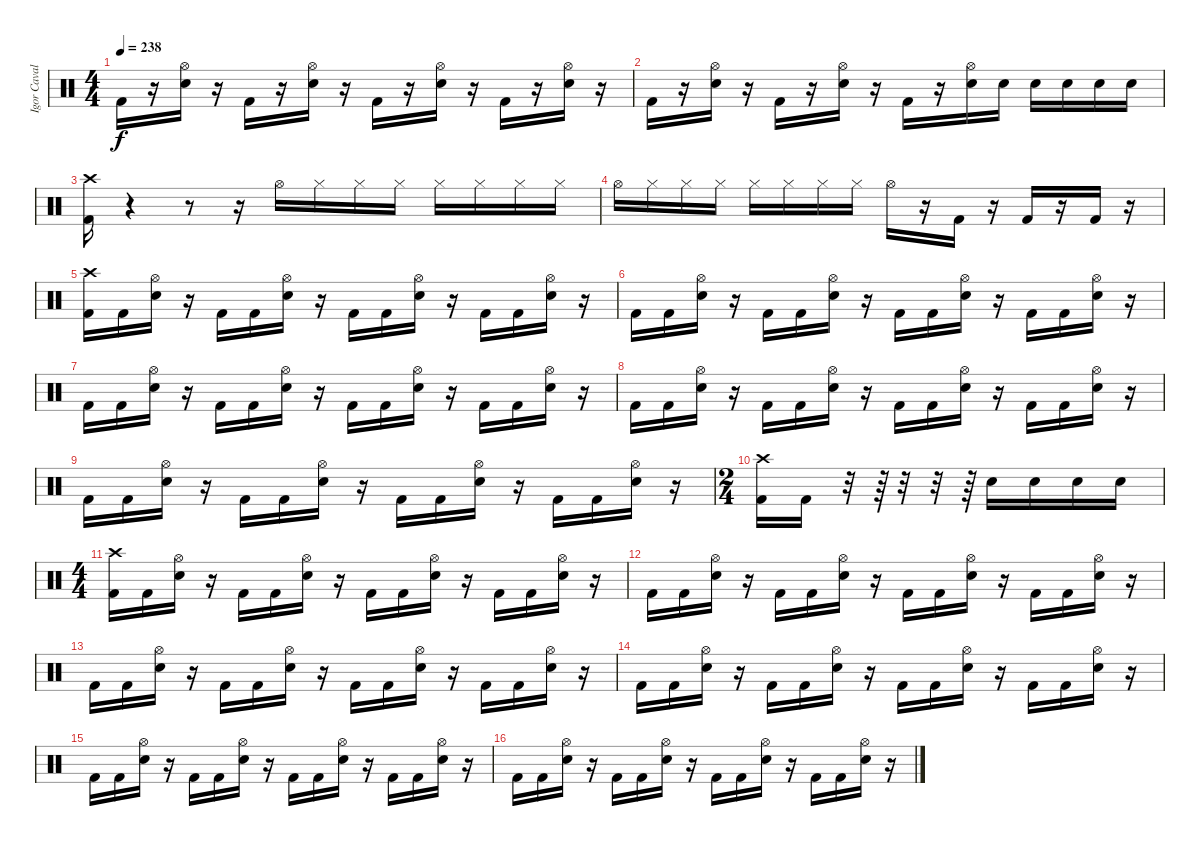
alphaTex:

\track ("Igor Cavalera" "Igor Caval") {instrument percussion}
\staff {score}
\articulation defaults
\ts (4 4)
\tempo 238
\clef neutral
\ks c "Kick (hit) 2".16{dy f}
r.16 ("Snare (hit) 2" "Hi-Hat (open)").16 r.16 "Kick (hit) 2".16 r.16 ("Snare (hit) 2" "Hi-Hat (open)").16 r.16 "Kick (hit) 2".16 r.16 ("Snare (hit) 2" "Hi-Hat (open)").16 r.16 "Kick (hit) 2".16 r.16 ("Snare (hit) 2" "Hi-Hat (open)").16 r.16 |
"Kick (hit) 2".16 r.16 ("Snare (hit) 2" "Hi-Hat (open)").16 r.16 "Kick (hit) 2".16 r.16 ("Snare (hit) 2" "Hi-Hat (open)").16 r.16 "Kick (hit) 2".16 r.16 ("Snare (hit) 2" "Hi-Hat (open)").16 "Snare (hit) 2".16 "Snare (hit) 2".16 "Snare (hit) 2".16 "Snare (hit) 2".16 "Snare (hit) 2".16 |
("Kick (hit) 2" "Crash high (hit)").16 r.4 r.8 r.16 "Hi-Hat (open)".16 "Hi-Hat (closed)".16 "Hi-Hat (closed)".16 "Hi-Hat (closed)".16 "Hi-Hat (closed)".16 "Hi-Hat (closed)".16 "Hi-Hat (closed)".16 "Hi-Hat (closed)".16 |
"Hi-Hat (open)".16 "Hi-Hat (closed)".16 "Hi-Hat (closed)".16 "Hi-Hat (closed)".16 "Hi-Hat (closed)".16 "Hi-Hat (closed)".16 "Hi-Hat (closed)".16 "Hi-Hat (closed)".16 "Hi-Hat (open)".16 r.16 "Kick (hit) 2".16 r.16 "Kick (hit) 2".16 r.16 "Kick (hit) 2".16 r.16 |
("Kick (hit) 2" "Crash high (hit)").16 "Kick (hit) 2".16 ("Snare (hit) 2" "Hi-Hat (open)").16 r.16 "Kick (hit) 2".16 "Kick (hit) 2".16 ("Snare (hit) 2" "Hi-Hat (open)").16 r.16 "Kick (hit) 2".16 "Kick (hit) 2".16 ("Snare (hit) 2" "Hi-Hat (open)").16 r.16 "Kick (hit) 2".16 "Kick (hit) 2".16 ("Snare (hit) 2" "Hi-Hat (open)").16 r.16 |
"Kick (hit) 2".16 "Kick (hit) 2".16 ("Snare (hit) 2" "Hi-Hat (open)").16 r.16 "Kick (hit) 2".16 "Kick (hit) 2".16 ("Snare (hit) 2" "Hi-Hat (open)").16 r.16 "Kick (hit) 2".16 "Kick (hit) 2".16 ("Snare (hit) 2" "Hi-Hat (open)").16 r.16 "Kick (hit) 2".16 "Kick (hit) 2".16 ("Snare (hit) 2" "Hi-Hat (open)").16 r.16 |
"Kick (hit) 2".16 "Kick (hit) 2".16 ("Snare (hit) 2" "Hi-Hat (open)").16 r.16 "Kick (hit) 2".16 "Kick (hit) 2".16 ("Snare (hit) 2" "Hi-Hat (open)").16 r.16 "Kick (hit) 2".16 "Kick (hit) 2".16 ("Snare (hit) 2" "Hi-Hat (open)").16 r.16 "Kick (hit) 2".16 "Kick (hit) 2".16 ("Snare (hit) 2" "Hi-Hat (open)").16 r.16 |
"Kick (hit) 2".16 "Kick (hit) 2".16 ("Snare (hit) 2" "Hi-Hat (open)").16 r.16 "Kick (hit) 2".16 "Kick (hit) 2".16 ("Snare (hit) 2" "Hi-Hat (open)").16 r.16 "Kick (hit) 2".16 "Kick (hit) 2".16 ("Snare (hit) 2" "Hi-Hat (open)").16 r.16 "Kick (hit) 2".16 "Kick (hit) 2".16 ("Snare (hit) 2" "Hi-Hat (open)").16 r.16 |
"Kick (hit) 2".16 "Kick (hit) 2".16 ("Snare (hit) 2" "Hi-Hat (open)").16 r.16 "Kick (hit) 2".16 "Kick (hit) 2".16 ("Snare (hit) 2" "Hi-Hat (open)").16 r.16 "Kick (hit) 2".16 "Kick (hit) 2".16 ("Snare (hit) 2" "Hi-Hat (open)").16 r.16 "Kick (hit) 2".16 "Kick (hit) 2".16 ("Snare (hit) 2" "Hi-Hat (open)").16 r.16 |
\ts (2 4)
("Crash high (hit)" "Kick (hit) 2").16 "Kick (hit) 2".16 r.32 r.64 r.32 r.32 r.64 "Snare (hit) 2".16 "Snare (hit) 2".16 "Snare (hit) 2".16 "Snare (hit) 2".16 |
\ts (4 4)
("Kick (hit) 2" "Crash high (hit)").16 "Kick (hit) 2".16 ("Snare (hit) 2" "Hi-Hat (open)").16 r.16 "Kick (hit) 2".16 "Kick (hit) 2".16 ("Snare (hit) 2" "Hi-Hat (open)").16 r.16 "Kick (hit) 2".16 "Kick (hit) 2".16 ("Snare (hit) 2" "Hi-Hat (open)").16 r.16 "Kick (hit) 2".16 "Kick (hit) 2".16 ("Snare (hit) 2" "Hi-Hat (open)").16 r.16 |
"Kick (hit) 2".16 "Kick (hit) 2".16 ("Snare (hit) 2" "Hi-Hat (open)").16 r.16 "Kick (hit) 2".16 "Kick (hit) 2".16 ("Snare (hit) 2" "Hi-Hat (open)").16 r.16 "Kick (hit) 2".16 "Kick (hit) 2".16 ("Snare (hit) 2" "Hi-Hat (open)").16 r.16 "Kick (hit) 2".16 "Kick (hit) 2".16 ("Snare (hit) 2" "Hi-Hat (open)").16 r.16 |
"Kick (hit) 2".16 "Kick (hit) 2".16 ("Snare (hit) 2" "Hi-Hat (open)").16 r.16 "Kick (hit) 2".16 "Kick (hit) 2".16 ("Snare (hit) 2" "Hi-Hat (open)").16 r.16 "Kick (hit) 2".16 "Kick (hit) 2".16 ("Snare (hit) 2" "Hi-Hat (open)").16 r.16 "Kick (hit) 2".16 "Kick (hit) 2".16 ("Snare (hit) 2" "Hi-Hat (open)").16 r.16 |
"Kick (hit) 2".16 "Kick (hit) 2".16 ("Snare (hit) 2" "Hi-Hat (open)").16 r.16 "Kick (hit) 2".16 "Kick (hit) 2".16 ("Snare (hit) 2" "Hi-Hat (open)").16 r.16 "Kick (hit) 2".16 "Kick (hit) 2".16 ("Snare (hit) 2" "Hi-Hat (open)").16 r.16 "Kick (hit) 2".16 "Kick (hit) 2".16 ("Snare (hit) 2" "Hi-Hat (open)").16 r.16 |
"Kick (hit) 2".16 "Kick (hit) 2".16 ("Snare (hit) 2" "Hi-Hat (open)").16 r.16 "Kick (hit) 2".16 "Kick (hit) 2".16 ("Snare (hit) 2" "Hi-Hat (open)").16 r.16 "Kick (hit) 2".16 "Kick (hit) 2".16 ("Snare (hit) 2" "Hi-Hat (open)").16 r.16 "Kick (hit) 2".16 "Kick (hit) 2".16 ("Snare (hit) 2" "Hi-Hat (open)").16 r.16 |
"Kick (hit) 2".16 "Kick (hit) 2".16 ("Snare (hit) 2" "Hi-Hat (open)").16 r.16 "Kick (hit) 2".16 "Kick (hit) 2".16 ("Snare (hit) 2" "Hi-Hat (open)").16 r.16 "Kick (hit) 2".16 "Kick (hit) 2".16 ("Snare (hit) 2" "Hi-Hat (open)").16 r.16 "Kick (hit) 2".16 "Kick (hit) 2".16 ("Snare (hit) 2" "Hi-Hat (open)").16 r.16
